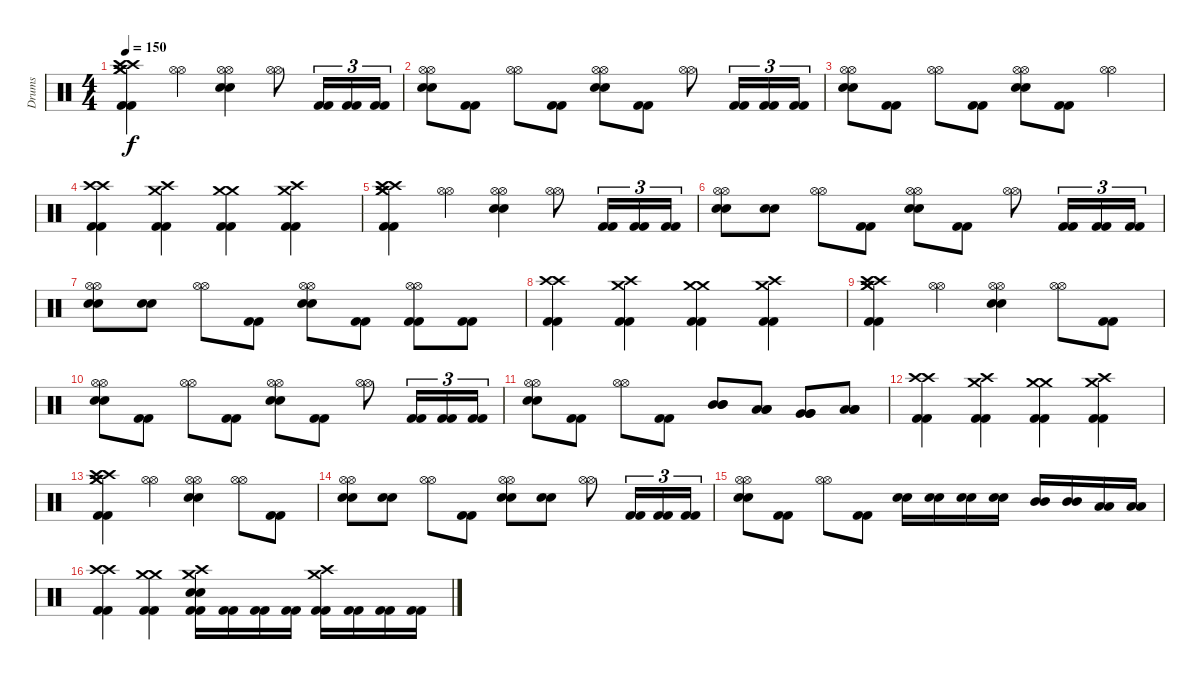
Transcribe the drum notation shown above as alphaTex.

\track ("Drums" "Drums") {instrument percussion}
\staff {score}
\articulation defaults
\ts (4 4)
\tempo 150
\clef neutral
\ks c
("Crash high (hit)" "Crash high (hit)" "Crash medium (hit)" "Crash medium (hit)" "Kick (hit) 2" "Kick (hit) 2").4{dy f} ("Hi-Hat (open)" "Hi-Hat (open)").4 ("Hi-Hat (open)" "Hi-Hat (open)" "Electric Snare (hit)" "Electric Snare (hit)").4 ("Hi-Hat (open)" "Hi-Hat (open)").8 ("Kick (hit) 2" "Kick (hit) 2").16{tu (3 2)} ("Kick (hit) 2" "Kick (hit) 2").16{tu (3 2)} ("Kick (hit) 2" "Kick (hit) 2").16{tu (3 2)} |
("Hi-Hat (open)" "Hi-Hat (open)" "Electric Snare (hit)" "Electric Snare (hit)").8 ("Kick (hit) 2" "Kick (hit) 2").8 ("Hi-Hat (open)" "Hi-Hat (open)").8 ("Kick (hit) 2" "Kick (hit) 2").8 ("Hi-Hat (open)" "Hi-Hat (open)" "Electric Snare (hit)" "Electric Snare (hit)").8 ("Kick (hit) 2" "Kick (hit) 2").8 ("Hi-Hat (open)" "Hi-Hat (open)").8 ("Kick (hit) 2" "Kick (hit) 2").16{tu (3 2)} ("Kick (hit) 2" "Kick (hit) 2").16{tu (3 2)} ("Kick (hit) 2" "Kick (hit) 2").16{tu (3 2)} |
("Hi-Hat (open)" "Hi-Hat (open)" "Electric Snare (hit)" "Electric Snare (hit)").8 ("Kick (hit) 2" "Kick (hit) 2").8 ("Hi-Hat (open)" "Hi-Hat (open)").8 ("Kick (hit) 2" "Kick (hit) 2").8 ("Hi-Hat (open)" "Hi-Hat (open)" "Electric Snare (hit)" "Electric Snare (hit)").8 ("Kick (hit) 2" "Kick (hit) 2").8 ("Hi-Hat (open)" "Hi-Hat (open)").4 |
("Crash high (hit)" "Crash high (hit)" "Kick (hit) 2" "Kick (hit) 2").4 ("Crash high (hit)" "Crash medium (hit)" "Kick (hit) 2" "Kick (hit) 2").4 ("Crash medium (hit)" "Crash medium (hit)" "Kick (hit) 2" "Kick (hit) 2").4 ("Crash medium (hit)" "Crash high (hit)" "Kick (hit) 2" "Kick (hit) 2").4 |
("Crash high (hit)" "Crash high (hit)" "Crash medium (hit)" "Crash medium (hit)" "Kick (hit) 2" "Kick (hit) 2").4 ("Hi-Hat (open)" "Hi-Hat (open)").4 ("Hi-Hat (open)" "Hi-Hat (open)" "Electric Snare (hit)" "Electric Snare (hit)").4 ("Hi-Hat (open)" "Hi-Hat (open)").8 ("Kick (hit) 2" "Kick (hit) 2").16{tu (3 2)} ("Kick (hit) 2" "Kick (hit) 2").16{tu (3 2)} ("Kick (hit) 2" "Kick (hit) 2").16{tu (3 2)} |
("Hi-Hat (open)" "Hi-Hat (open)" "Electric Snare (hit)" "Electric Snare (hit)").8 ("Electric Snare (hit)" "Electric Snare (hit)").8 ("Hi-Hat (open)" "Hi-Hat (open)").8 ("Kick (hit) 2" "Kick (hit) 2").8 ("Hi-Hat (open)" "Hi-Hat (open)" "Electric Snare (hit)" "Electric Snare (hit)").8 ("Kick (hit) 2" "Kick (hit) 2").8 ("Hi-Hat (open)" "Hi-Hat (open)").8 ("Kick (hit) 2" "Kick (hit) 2").16{tu (3 2)} ("Kick (hit) 2" "Kick (hit) 2").16{tu (3 2)} ("Kick (hit) 2" "Kick (hit) 2").16{tu (3 2)} |
("Hi-Hat (open)" "Hi-Hat (open)" "Electric Snare (hit)" "Electric Snare (hit)").8 ("Electric Snare (hit)" "Electric Snare (hit)").8 ("Hi-Hat (open)" "Hi-Hat (open)").8 ("Kick (hit) 2" "Kick (hit) 2").8 ("Hi-Hat (open)" "Hi-Hat (open)" "Electric Snare (hit)" "Electric Snare (hit)").8 ("Kick (hit) 2" "Kick (hit) 2").8 ("Hi-Hat (open)" "Hi-Hat (open)" "Kick (hit) 2" "Kick (hit) 2").8 ("Kick (hit) 2" "Kick (hit) 2").8 |
("Crash high (hit)" "Crash high (hit)" "Kick (hit) 2" "Kick (hit) 2").4 ("Crash high (hit)" "Crash medium (hit)" "Kick (hit) 2" "Kick (hit) 2").4 ("Crash medium (hit)" "Crash medium (hit)" "Kick (hit) 2" "Kick (hit) 2").4 ("Crash medium (hit)" "Crash high (hit)" "Kick (hit) 2" "Kick (hit) 2").4 |
("Crash high (hit)" "Crash high (hit)" "Crash medium (hit)" "Crash medium (hit)" "Kick (hit) 2" "Kick (hit) 2").4 ("Hi-Hat (open)" "Hi-Hat (open)").4 ("Hi-Hat (open)" "Hi-Hat (open)" "Electric Snare (hit)" "Electric Snare (hit)").4 ("Hi-Hat (open)" "Hi-Hat (open)").8 ("Kick (hit) 2" "Kick (hit) 2").8 |
("Hi-Hat (open)" "Hi-Hat (open)" "Electric Snare (hit)" "Electric Snare (hit)").8 ("Kick (hit) 2" "Kick (hit) 2").8 ("Hi-Hat (open)" "Hi-Hat (open)").8 ("Kick (hit) 2" "Kick (hit) 2").8 ("Hi-Hat (open)" "Hi-Hat (open)" "Electric Snare (hit)" "Electric Snare (hit)").8 ("Kick (hit) 2" "Kick (hit) 2").8 ("Hi-Hat (open)" "Hi-Hat (open)").8 ("Kick (hit) 2" "Kick (hit) 2").16{tu (3 2)} ("Kick (hit) 2" "Kick (hit) 2").16{tu (3 2)} ("Kick (hit) 2" "Kick (hit) 2").16{tu (3 2)} |
("Hi-Hat (open)" "Hi-Hat (open)" "Electric Snare (hit)" "Electric Snare (hit)").8 ("Kick (hit) 2" "Kick (hit) 2").8 ("Hi-Hat (open)" "Hi-Hat (open)").8 ("Kick (hit) 2" "Kick (hit) 2").8 ("Mid Tom (hit)" "Mid Tom (hit)" "Mid Tom (hit)").8 ("Low Tom (hit)" "Low Tom (hit)" "Low Tom (hit)").8 ("Very Low Tom (hit)" "Very Low Tom (hit)" "Very Low Tom (hit)").8 ("Low Floor Tom (hit)" "Low Floor Tom (hit)" "Low Floor Tom (hit)").8 |
("Crash high (hit)" "Crash high (hit)" "Kick (hit) 2" "Kick (hit) 2").4 ("Crash high (hit)" "Crash medium (hit)" "Kick (hit) 2" "Kick (hit) 2").4 ("Crash medium (hit)" "Crash medium (hit)" "Kick (hit) 2" "Kick (hit) 2").4 ("Crash medium (hit)" "Crash high (hit)" "Kick (hit) 2" "Kick (hit) 2").4 |
("Crash high (hit)" "Crash high (hit)" "Crash medium (hit)" "Crash medium (hit)" "Kick (hit) 2" "Kick (hit) 2").4 ("Hi-Hat (open)" "Hi-Hat (open)").4 ("Hi-Hat (open)" "Hi-Hat (open)" "Electric Snare (hit)" "Electric Snare (hit)").4 ("Hi-Hat (open)" "Hi-Hat (open)").8 ("Kick (hit) 2" "Kick (hit) 2").8 |
("Hi-Hat (open)" "Hi-Hat (open)" "Electric Snare (hit)" "Electric Snare (hit)").8 ("Electric Snare (hit)" "Electric Snare (hit)").8 ("Hi-Hat (open)" "Hi-Hat (open)").8 ("Kick (hit) 2" "Kick (hit) 2").8 ("Hi-Hat (open)" "Hi-Hat (open)" "Electric Snare (hit)" "Electric Snare (hit)").8 ("Electric Snare (hit)" "Electric Snare (hit)").8 ("Hi-Hat (open)" "Hi-Hat (open)").8 ("Kick (hit) 2" "Kick (hit) 2").16{tu (3 2)} ("Kick (hit) 2" "Kick (hit) 2").16{tu (3 2)} ("Kick (hit) 2" "Kick (hit) 2").16{tu (3 2)} |
("Hi-Hat (open)" "Hi-Hat (open)" "Electric Snare (hit)" "Electric Snare (hit)").8 ("Kick (hit) 2" "Kick (hit) 2").8 ("Hi-Hat (open)" "Hi-Hat (open)").8 ("Kick (hit) 2" "Kick (hit) 2").8 ("Electric Snare (hit)" "Electric Snare (hit)").16 ("Electric Snare (hit)" "Electric Snare (hit)").16 ("Electric Snare (hit)" "Electric Snare (hit)").16 ("Electric Snare (hit)" "Electric Snare (hit)").16 ("Mid Tom (hit)" "Mid Tom (hit)").16 ("Mid Tom (hit)" "Mid Tom (hit)").16 ("Low Tom (hit)" "Low Tom (hit)").16 ("Low Tom (hit)" "Low Tom (hit)").16 |
("Crash high (hit)" "Crash high (hit)" "Kick (hit) 2" "Kick (hit) 2").4 ("Crash medium (hit)" "Crash medium (hit)" "Kick (hit) 2" "Kick (hit) 2").4 ("Crash medium (hit)" "Crash high (hit)" "Electric Snare (hit)" "Electric Snare (hit)" "Kick (hit) 2" "Kick (hit) 2").16 ("Kick (hit) 2" "Kick (hit) 2").16 ("Kick (hit) 2" "Kick (hit) 2").16 ("Kick (hit) 2" "Kick (hit) 2").16 ("Crash medium (hit)" "Crash high (hit)" "Kick (hit) 2" "Kick (hit) 2").16 ("Kick (hit) 2" "Kick (hit) 2").16 ("Kick (hit) 2" "Kick (hit) 2").16 ("Kick (hit) 2" "Kick (hit) 2").16
